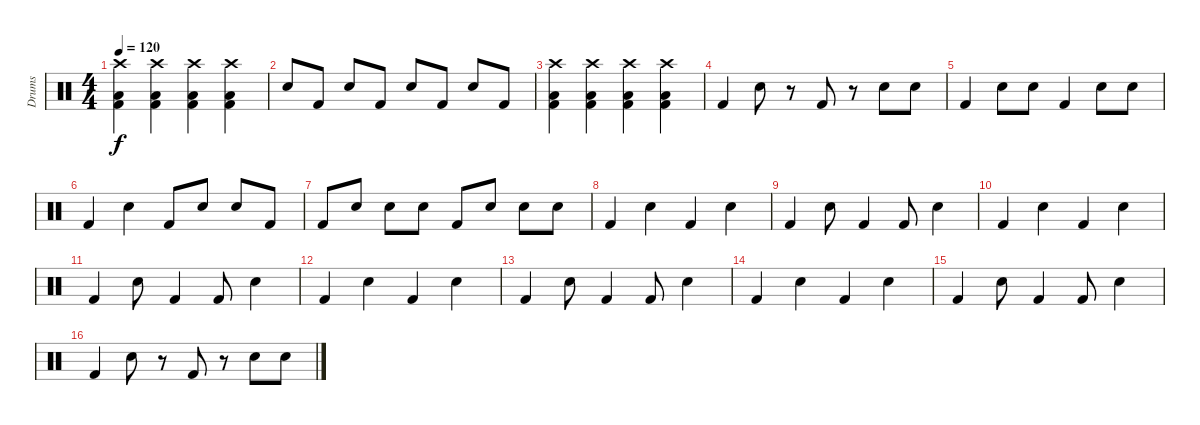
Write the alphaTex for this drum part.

\track ("Drums" "Drums") {instrument percussion}
\staff {score}
\articulation defaults
\ts (4 4)
\tempo 120
\clef neutral
\ks c
("Crash high (hit)" "Kick (hit) 2" "Low Tom (hit)").4{dy f} ("Crash high (hit)" "Kick (hit) 2" "Low Tom (hit)").4 ("Crash high (hit)" "Kick (hit) 2" "Low Tom (hit)").4 ("Crash high (hit)" "Kick (hit) 2" "Low Tom (hit)").4 |
"Snare (hit) 2".8 "Kick (hit) 2".8 "Snare (hit) 2".8 "Kick (hit) 2".8 "Snare (hit) 2".8 "Kick (hit) 2".8 "Snare (hit) 2".8 "Kick (hit) 2".8 |
("Crash high (hit)" "Kick (hit) 2" "Low Tom (hit)").4 ("Crash high (hit)" "Kick (hit) 2" "Low Tom (hit)").4 ("Crash high (hit)" "Kick (hit) 2" "Low Tom (hit)").4 ("Crash high (hit)" "Kick (hit) 2" "Low Tom (hit)").4 |
"Kick (hit) 2".4 "Snare (hit) 2".8 r.8 "Kick (hit) 2".8 r.8 "Snare (hit) 2".8 "Snare (hit) 2".8 |
"Kick (hit) 2".4 "Snare (hit) 2".8 "Snare (hit) 2".8 "Kick (hit) 2".4 "Snare (hit) 2".8 "Snare (hit) 2".8 |
"Kick (hit) 2".4 "Snare (hit) 2".4 "Kick (hit) 2".8 "Snare (hit) 2".8 "Snare (hit) 2".8 "Kick (hit) 2".8 |
"Kick (hit) 2".8 "Snare (hit) 2".8 "Snare (hit) 2".8 "Snare (hit) 2".8 "Kick (hit) 2".8 "Snare (hit) 2".8 "Snare (hit) 2".8 "Snare (hit) 2".8 |
"Kick (hit) 2".4 "Snare (hit) 2".4 "Kick (hit) 2".4 "Snare (hit) 2".4 |
"Kick (hit) 2".4 "Snare (hit) 2".8 "Kick (hit) 2".4 "Kick (hit) 2".8 "Snare (hit) 2".4 |
"Kick (hit) 2".4 "Snare (hit) 2".4 "Kick (hit) 2".4 "Snare (hit) 2".4 |
"Kick (hit) 2".4 "Snare (hit) 2".8 "Kick (hit) 2".4 "Kick (hit) 2".8 "Snare (hit) 2".4 |
"Kick (hit) 2".4 "Snare (hit) 2".4 "Kick (hit) 2".4 "Snare (hit) 2".4 |
"Kick (hit) 2".4 "Snare (hit) 2".8 "Kick (hit) 2".4 "Kick (hit) 2".8 "Snare (hit) 2".4 |
"Kick (hit) 2".4 "Snare (hit) 2".4 "Kick (hit) 2".4 "Snare (hit) 2".4 |
"Kick (hit) 2".4 "Snare (hit) 2".8 "Kick (hit) 2".4 "Kick (hit) 2".8 "Snare (hit) 2".4 |
"Kick (hit) 2".4 "Snare (hit) 2".8 r.8 "Kick (hit) 2".8 r.8 "Snare (hit) 2".8 "Snare (hit) 2".8
